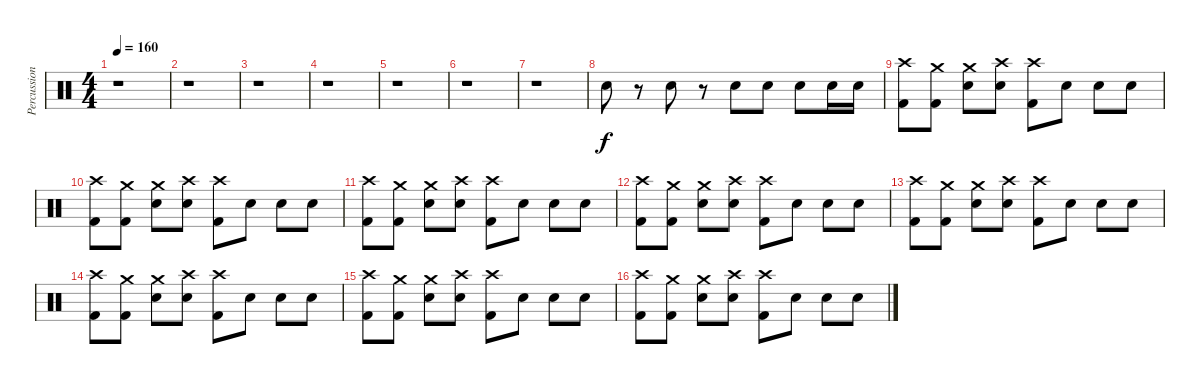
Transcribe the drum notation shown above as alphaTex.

\track ("Percussion" "Percussion") {instrument percussion}
\staff {score}
\articulation defaults
\ts (4 4)
\tempo 160
\clef neutral
\ks c
r.1{dy f} |
r.1 |
r.1 |
r.1 |
r.1 |
r.1 |
r.1 |
"Electric Snare (hit)".8 r.8 "Electric Snare (hit)".8 r.8 "Electric Snare (hit)".8 "Electric Snare (hit)".8 "Electric Snare (hit)".8 "Electric Snare (hit)".16 "Electric Snare (hit)".16 |
("Crash high (hit)" "Kick (hit) 2").8 ("Crash medium (hit)" "Kick (hit) 2").8 ("Crash medium (hit)" "Snare (hit) 2").8 ("Crash high (hit)" "Snare (hit) 2").8 ("Crash high (hit)" "Kick (hit) 2").8 "Snare (hit) 2".8 "Snare (hit) 2".8 "Snare (hit) 2".8 |
("Crash high (hit)" "Kick (hit) 2").8 ("Crash medium (hit)" "Kick (hit) 2").8 ("Crash medium (hit)" "Snare (hit) 2").8 ("Crash high (hit)" "Snare (hit) 2").8 ("Crash high (hit)" "Kick (hit) 2").8 "Snare (hit) 2".8 "Snare (hit) 2".8 "Snare (hit) 2".8 |
("Crash high (hit)" "Kick (hit) 2").8 ("Crash medium (hit)" "Kick (hit) 2").8 ("Crash medium (hit)" "Snare (hit) 2").8 ("Crash high (hit)" "Snare (hit) 2").8 ("Crash high (hit)" "Kick (hit) 2").8 "Snare (hit) 2".8 "Snare (hit) 2".8 "Snare (hit) 2".8 |
("Crash high (hit)" "Kick (hit) 2").8 ("Crash medium (hit)" "Kick (hit) 2").8 ("Crash medium (hit)" "Snare (hit) 2").8 ("Crash high (hit)" "Snare (hit) 2").8 ("Crash high (hit)" "Kick (hit) 2").8 "Snare (hit) 2".8 "Snare (hit) 2".8 "Snare (hit) 2".8 |
("Crash high (hit)" "Kick (hit) 2").8 ("Crash medium (hit)" "Kick (hit) 2").8 ("Crash medium (hit)" "Snare (hit) 2").8 ("Crash high (hit)" "Snare (hit) 2").8 ("Crash high (hit)" "Kick (hit) 2").8 "Snare (hit) 2".8 "Snare (hit) 2".8 "Snare (hit) 2".8 |
("Crash high (hit)" "Kick (hit) 2").8 ("Crash medium (hit)" "Kick (hit) 2").8 ("Crash medium (hit)" "Snare (hit) 2").8 ("Crash high (hit)" "Snare (hit) 2").8 ("Crash high (hit)" "Kick (hit) 2").8 "Snare (hit) 2".8 "Snare (hit) 2".8 "Snare (hit) 2".8 |
("Crash high (hit)" "Kick (hit) 2").8 ("Crash medium (hit)" "Kick (hit) 2").8 ("Crash medium (hit)" "Snare (hit) 2").8 ("Crash high (hit)" "Snare (hit) 2").8 ("Crash high (hit)" "Kick (hit) 2").8 "Snare (hit) 2".8 "Snare (hit) 2".8 "Snare (hit) 2".8 |
("Crash high (hit)" "Kick (hit) 2").8 ("Crash medium (hit)" "Kick (hit) 2").8 ("Crash medium (hit)" "Snare (hit) 2").8 ("Crash high (hit)" "Snare (hit) 2").8 ("Crash high (hit)" "Kick (hit) 2").8 "Snare (hit) 2".8 "Snare (hit) 2".8 "Snare (hit) 2".8
